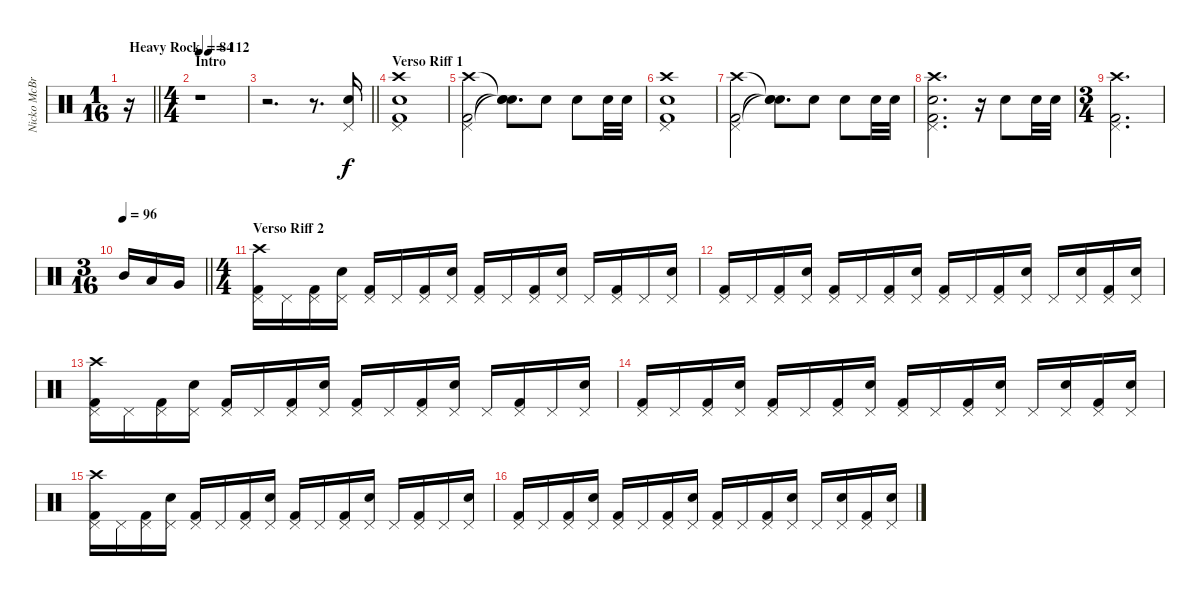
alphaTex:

\track ("Nicko McBrain" "Nicko McBr") {instrument percussion}
\staff {score}
\articulation defaults
\ts (1 16)
\tempo (112 "Heavy Rock")
\clef neutral
\barLineRight lightlight
\ks c
r.16{dy f} |
\ts (4 4)
\section ("" "Intro")
\tempo 84
r.1 |
\barLineRight lightlight
r.2{d} r.8{d} ("Snare (hit) 2" "Pedal Hi-Hat (hit)").16 |
\section ("" "Verso Riff 1")
("Snare (hit) 2" "Kick (hit) 2" "Pedal Hi-Hat (hit)" "Crash high (hit)").1 |
("Kick (hit) 2" "Pedal Hi-Hat (hit)" "Crash high (hit)").2 ("Snare (hit)"{t} "Snare (hit)"{t} "Snare (hit)"{t}).8{d} "Snare (hit) 2".8 "Snare (hit) 2".8 "Snare (hit) 2".32 "Snare (hit) 2".32 |
("Snare (hit) 2" "Kick (hit) 2" "Pedal Hi-Hat (hit)" "Crash high (hit)").1 |
("Kick (hit) 2" "Pedal Hi-Hat (hit)" "Crash high (hit)").2 ("Snare (hit)"{t} "Snare (hit)"{t} "Snare (hit)"{t}).8{d} "Snare (hit) 2".8 "Snare (hit) 2".8 "Snare (hit) 2".32 "Snare (hit) 2".32 |
("Snare (hit) 2" "Kick (hit) 2" "Pedal Hi-Hat (hit)" "Crash high (hit)").2{d} r.16 "Snare (hit) 2".8 "Snare (hit) 2".32 "Snare (hit) 2".32 |
\ts (3 4)
("Kick (hit) 2" "Pedal Hi-Hat (hit)" "Crash high (hit)").2{d} |
\ts (3 16)
\tempo 96
\barLineRight lightlight "Mid Tom (hit)".16 "Low Tom (hit)".16 "Very Low Tom (hit)".16
|
\ts (4 4)
\section ("" "Verso Riff 2")
("Kick (hit) 2" "Pedal Hi-Hat (hit)" "Crash high (hit)").16 "Pedal Hi-Hat (hit)".16 ("Kick (hit) 2" "Pedal Hi-Hat (hit)").16 ("Snare (hit) 2" "Pedal Hi-Hat (hit)").16 ("Kick (hit) 2" "Pedal Hi-Hat (hit)").16 "Pedal Hi-Hat (hit)".16 ("Kick (hit) 2" "Pedal Hi-Hat (hit)").16 ("Snare (hit) 2" "Pedal Hi-Hat (hit)").16 ("Kick (hit) 2" "Pedal Hi-Hat (hit)").16 "Pedal Hi-Hat (hit)".16 ("Kick (hit) 2" "Pedal Hi-Hat (hit)").16 ("Snare (hit) 2" "Pedal Hi-Hat (hit)").16 "Pedal Hi-Hat (hit)".16 ("Kick (hit) 2" "Pedal Hi-Hat (hit)").16 "Pedal Hi-Hat (hit)".16 ("Snare (hit) 2" "Pedal Hi-Hat (hit)").16 |
("Kick (hit) 2" "Pedal Hi-Hat (hit)").16 "Pedal Hi-Hat (hit)".16 ("Kick (hit) 2" "Pedal Hi-Hat (hit)").16 ("Snare (hit) 2" "Pedal Hi-Hat (hit)").16 ("Kick (hit) 2" "Pedal Hi-Hat (hit)").16 "Pedal Hi-Hat (hit)".16 ("Kick (hit) 2" "Pedal Hi-Hat (hit)").16 ("Snare (hit) 2" "Pedal Hi-Hat (hit)").16 ("Kick (hit) 2" "Pedal Hi-Hat (hit)").16 "Pedal Hi-Hat (hit)".16 ("Kick (hit) 2" "Pedal Hi-Hat (hit)").16 ("Snare (hit) 2" "Pedal Hi-Hat (hit)").16 "Pedal Hi-Hat (hit)".16 ("Snare (hit) 2" "Pedal Hi-Hat (hit)").16 ("Kick (hit) 2" "Pedal Hi-Hat (hit)").16 ("Snare (hit) 2" "Pedal Hi-Hat (hit)").16 |
("Kick (hit) 2" "Pedal Hi-Hat (hit)" "Crash high (hit)").16 "Pedal Hi-Hat (hit)".16 ("Kick (hit) 2" "Pedal Hi-Hat (hit)").16 ("Snare (hit) 2" "Pedal Hi-Hat (hit)").16 ("Kick (hit) 2" "Pedal Hi-Hat (hit)").16 "Pedal Hi-Hat (hit)".16 ("Kick (hit) 2" "Pedal Hi-Hat (hit)").16 ("Snare (hit) 2" "Pedal Hi-Hat (hit)").16 ("Kick (hit) 2" "Pedal Hi-Hat (hit)").16 "Pedal Hi-Hat (hit)".16 ("Kick (hit) 2" "Pedal Hi-Hat (hit)").16 ("Snare (hit) 2" "Pedal Hi-Hat (hit)").16 "Pedal Hi-Hat (hit)".16 ("Kick (hit) 2" "Pedal Hi-Hat (hit)").16 "Pedal Hi-Hat (hit)".16 ("Snare (hit) 2" "Pedal Hi-Hat (hit)").16 |
("Kick (hit) 2" "Pedal Hi-Hat (hit)").16 "Pedal Hi-Hat (hit)".16 ("Kick (hit) 2" "Pedal Hi-Hat (hit)").16 ("Snare (hit) 2" "Pedal Hi-Hat (hit)").16 ("Kick (hit) 2" "Pedal Hi-Hat (hit)").16 "Pedal Hi-Hat (hit)".16 ("Kick (hit) 2" "Pedal Hi-Hat (hit)").16 ("Snare (hit) 2" "Pedal Hi-Hat (hit)").16 ("Kick (hit) 2" "Pedal Hi-Hat (hit)").16 "Pedal Hi-Hat (hit)".16 ("Kick (hit) 2" "Pedal Hi-Hat (hit)").16 ("Snare (hit) 2" "Pedal Hi-Hat (hit)").16 "Pedal Hi-Hat (hit)".16 ("Snare (hit) 2" "Pedal Hi-Hat (hit)").16 ("Kick (hit) 2" "Pedal Hi-Hat (hit)").16 ("Snare (hit) 2" "Pedal Hi-Hat (hit)").16 |
("Kick (hit) 2" "Pedal Hi-Hat (hit)" "Crash high (hit)").16 "Pedal Hi-Hat (hit)".16 ("Kick (hit) 2" "Pedal Hi-Hat (hit)").16 ("Snare (hit) 2" "Pedal Hi-Hat (hit)").16 ("Kick (hit) 2" "Pedal Hi-Hat (hit)").16 "Pedal Hi-Hat (hit)".16 ("Kick (hit) 2" "Pedal Hi-Hat (hit)").16 ("Snare (hit) 2" "Pedal Hi-Hat (hit)").16 ("Kick (hit) 2" "Pedal Hi-Hat (hit)").16 "Pedal Hi-Hat (hit)".16 ("Kick (hit) 2" "Pedal Hi-Hat (hit)").16 ("Snare (hit) 2" "Pedal Hi-Hat (hit)").16 "Pedal Hi-Hat (hit)".16 ("Kick (hit) 2" "Pedal Hi-Hat (hit)").16 "Pedal Hi-Hat (hit)".16 ("Snare (hit) 2" "Pedal Hi-Hat (hit)").16 |
("Kick (hit) 2" "Pedal Hi-Hat (hit)").16 "Pedal Hi-Hat (hit)".16 ("Kick (hit) 2" "Pedal Hi-Hat (hit)").16 ("Snare (hit) 2" "Pedal Hi-Hat (hit)").16 ("Kick (hit) 2" "Pedal Hi-Hat (hit)").16 "Pedal Hi-Hat (hit)".16 ("Kick (hit) 2" "Pedal Hi-Hat (hit)").16 ("Snare (hit) 2" "Pedal Hi-Hat (hit)").16 ("Kick (hit) 2" "Pedal Hi-Hat (hit)").16 "Pedal Hi-Hat (hit)".16 ("Kick (hit) 2" "Pedal Hi-Hat (hit)").16 ("Snare (hit) 2" "Pedal Hi-Hat (hit)").16 "Pedal Hi-Hat (hit)".16 ("Snare (hit) 2" "Pedal Hi-Hat (hit)").16 ("Kick (hit) 2" "Pedal Hi-Hat (hit)").16 ("Snare (hit) 2" "Pedal Hi-Hat (hit)").16
